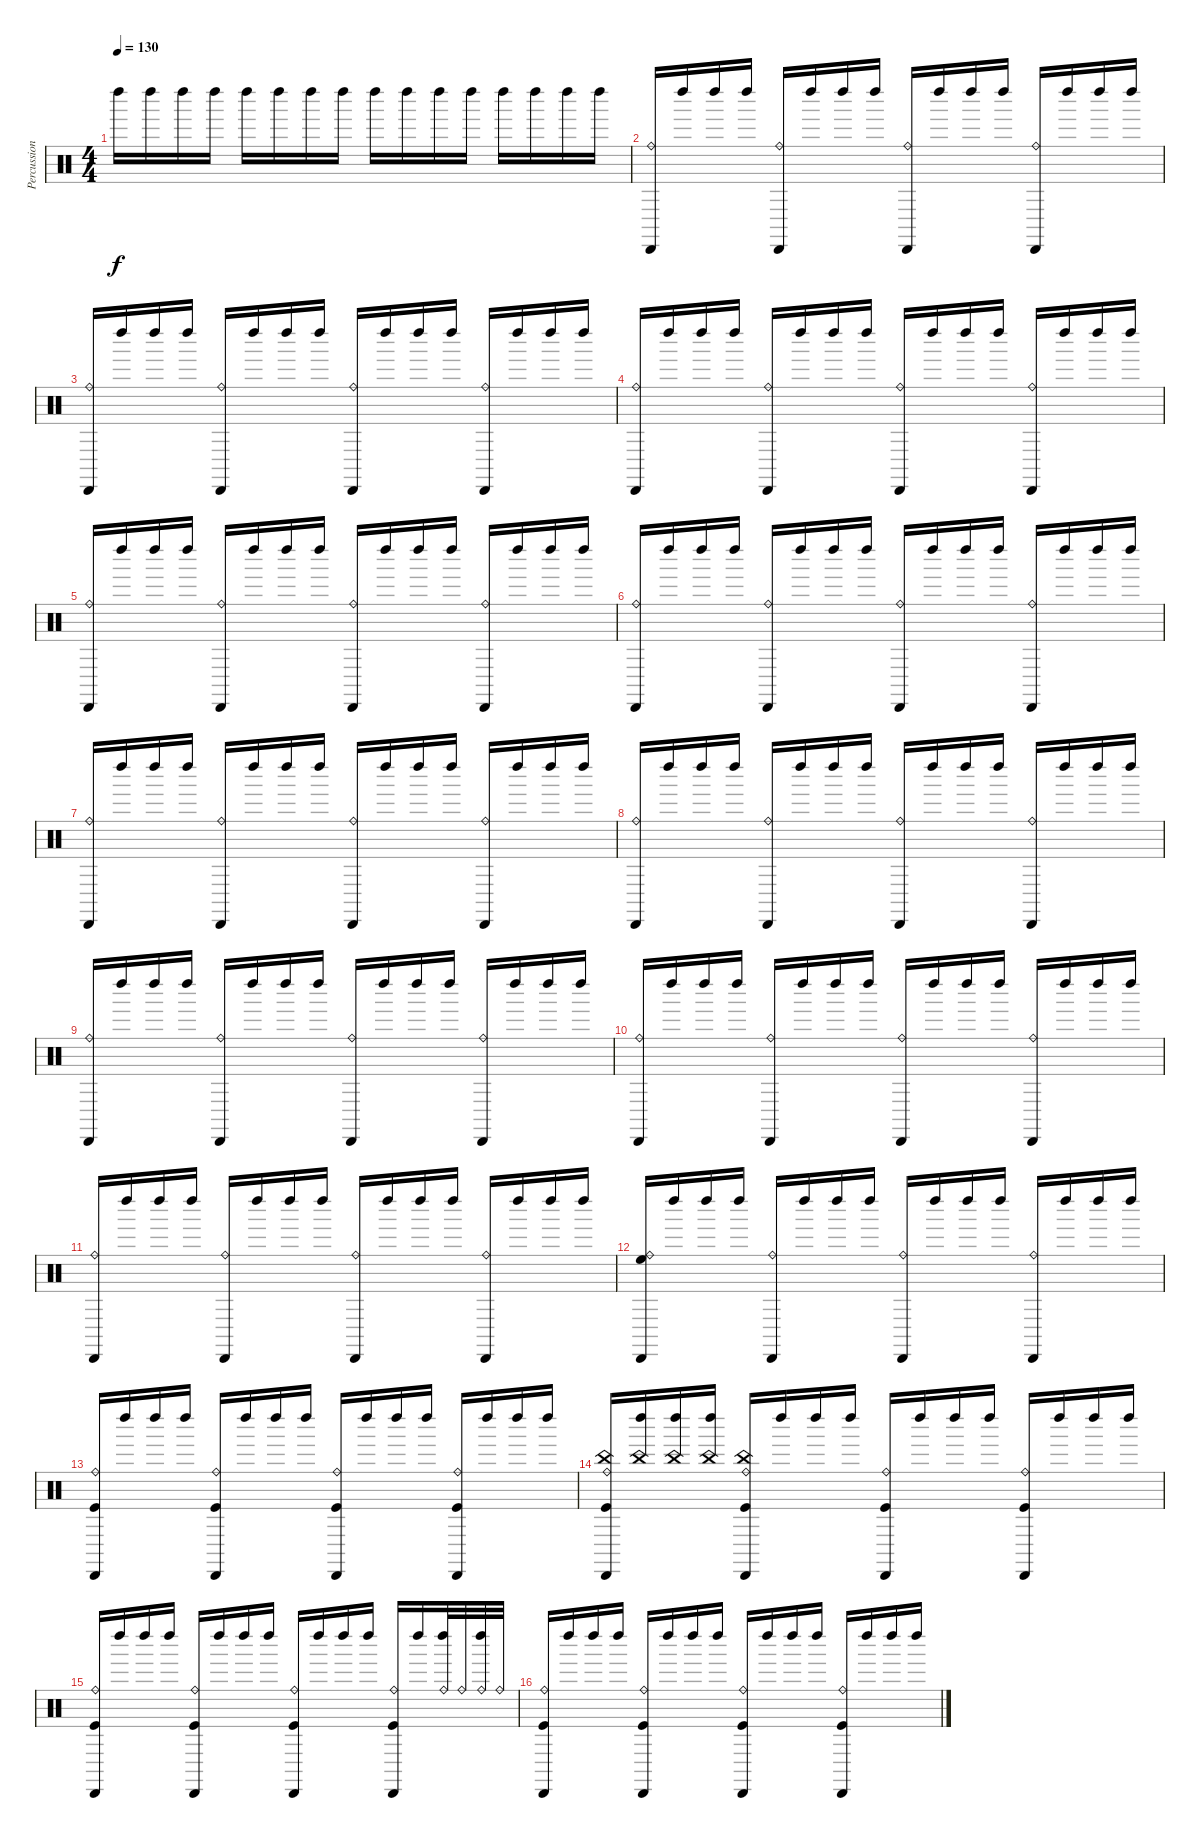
\track ("Percussion" "Percussion") {instrument percussion}
\staff {score}
\articulation defaults
\ts (4 4)
\tempo 130
\clef neutral
\ks c "Left Maraca (hit)".16{dy f} "Left Maraca (hit)".16 "Left Maraca (hit)".16 "Left Maraca (hit)".16 "Left Maraca (hit)".16 "Left Maraca (hit)".16 "Left Maraca (hit)".16 "Left Maraca (hit)".16 "Left Maraca (hit)".16 "Left Maraca (hit)".16 "Left Maraca (hit)".16 "Left Maraca (hit)".16 "Left Maraca (hit)".16 "Left Maraca (hit)".16 "Left Maraca (hit)".16 "Left Maraca (hit)".16
|
("Cabasa (hit)" "Ride (bell)").16 "Left Maraca (hit)".16 "Left Maraca (hit)".16 "Left Maraca (hit)".16 ("Cabasa (hit)" "Ride (bell)").16 "Left Maraca (hit)".16 "Left Maraca (hit)".16 "Left Maraca (hit)".16 ("Cabasa (hit)" "Ride (bell)").16 "Left Maraca (hit)".16 "Left Maraca (hit)".16 "Left Maraca (hit)".16 ("Cabasa (hit)" "Ride (bell)").16 "Left Maraca (hit)".16 "Left Maraca (hit)".16 "Left Maraca (hit)".16 |
("Cabasa (hit)" "Ride (bell)").16 "Left Maraca (hit)".16 "Left Maraca (hit)".16 "Left Maraca (hit)".16 ("Cabasa (hit)" "Ride (bell)").16 "Left Maraca (hit)".16 "Left Maraca (hit)".16 "Left Maraca (hit)".16 ("Cabasa (hit)" "Ride (bell)").16 "Left Maraca (hit)".16 "Left Maraca (hit)".16 "Left Maraca (hit)".16 ("Cabasa (hit)" "Ride (bell)").16 "Left Maraca (hit)".16 "Left Maraca (hit)".16 "Left Maraca (hit)".16 |
("Cabasa (hit)" "Ride (bell)").16 "Left Maraca (hit)".16 "Left Maraca (hit)".16 "Left Maraca (hit)".16 ("Cabasa (hit)" "Ride (bell)").16 "Left Maraca (hit)".16 "Left Maraca (hit)".16 "Left Maraca (hit)".16 ("Cabasa (hit)" "Ride (bell)").16 "Left Maraca (hit)".16 "Left Maraca (hit)".16 "Left Maraca (hit)".16 ("Cabasa (hit)" "Ride (bell)").16 "Left Maraca (hit)".16 "Left Maraca (hit)".16 "Left Maraca (hit)".16 |
("Cabasa (hit)" "Ride (bell)").16 "Left Maraca (hit)".16 "Left Maraca (hit)".16 "Left Maraca (hit)".16 ("Cabasa (hit)" "Ride (bell)").16 "Left Maraca (hit)".16 "Left Maraca (hit)".16 "Left Maraca (hit)".16 ("Cabasa (hit)" "Ride (bell)").16 "Left Maraca (hit)".16 "Left Maraca (hit)".16 "Left Maraca (hit)".16 ("Cabasa (hit)" "Ride (bell)").16 "Left Maraca (hit)".16 "Left Maraca (hit)".16 "Left Maraca (hit)".16 |
("Cabasa (hit)" "Ride (bell)").16 "Left Maraca (hit)".16 "Left Maraca (hit)".16 "Left Maraca (hit)".16 ("Cabasa (hit)" "Ride (bell)").16 "Left Maraca (hit)".16 "Left Maraca (hit)".16 "Left Maraca (hit)".16 ("Cabasa (hit)" "Ride (bell)").16 "Left Maraca (hit)".16 "Left Maraca (hit)".16 "Left Maraca (hit)".16 ("Cabasa (hit)" "Ride (bell)").16 "Left Maraca (hit)".16 "Left Maraca (hit)".16 "Left Maraca (hit)".16 |
("Cabasa (hit)" "Ride (bell)").16 "Left Maraca (hit)".16 "Left Maraca (hit)".16 "Left Maraca (hit)".16 ("Cabasa (hit)" "Ride (bell)").16 "Left Maraca (hit)".16 "Left Maraca (hit)".16 "Left Maraca (hit)".16 ("Cabasa (hit)" "Ride (bell)").16 "Left Maraca (hit)".16 "Left Maraca (hit)".16 "Left Maraca (hit)".16 ("Cabasa (hit)" "Ride (bell)").16 "Left Maraca (hit)".16 "Left Maraca (hit)".16 "Left Maraca (hit)".16 |
("Cabasa (hit)" "Ride (bell)").16 "Left Maraca (hit)".16 "Left Maraca (hit)".16 "Left Maraca (hit)".16 ("Cabasa (hit)" "Ride (bell)").16 "Left Maraca (hit)".16 "Left Maraca (hit)".16 "Left Maraca (hit)".16 ("Cabasa (hit)" "Ride (bell)").16 "Left Maraca (hit)".16 "Left Maraca (hit)".16 "Left Maraca (hit)".16 ("Cabasa (hit)" "Ride (bell)").16 "Left Maraca (hit)".16 "Left Maraca (hit)".16 "Left Maraca (hit)".16 |
("Cabasa (hit)" "Ride (bell)").16 "Left Maraca (hit)".16 "Left Maraca (hit)".16 "Left Maraca (hit)".16 ("Cabasa (hit)" "Ride (bell)").16 "Left Maraca (hit)".16 "Left Maraca (hit)".16 "Left Maraca (hit)".16 ("Cabasa (hit)" "Ride (bell)").16 "Left Maraca (hit)".16 "Left Maraca (hit)".16 "Left Maraca (hit)".16 ("Cabasa (hit)" "Ride (bell)").16 "Left Maraca (hit)".16 "Left Maraca (hit)".16 "Left Maraca (hit)".16 |
("Cabasa (hit)" "Ride (bell)").16 "Left Maraca (hit)".16 "Left Maraca (hit)".16 "Left Maraca (hit)".16 ("Cabasa (hit)" "Ride (bell)").16 "Left Maraca (hit)".16 "Left Maraca (hit)".16 "Left Maraca (hit)".16 ("Cabasa (hit)" "Ride (bell)").16 "Left Maraca (hit)".16 "Left Maraca (hit)".16 "Left Maraca (hit)".16 ("Cabasa (hit)" "Ride (bell)").16 "Left Maraca (hit)".16 "Left Maraca (hit)".16 "Left Maraca (hit)".16 |
("Cabasa (hit)" "Ride (bell)").16 "Left Maraca (hit)".16 "Left Maraca (hit)".16 "Left Maraca (hit)".16 ("Cabasa (hit)" "Ride (bell)").16 "Left Maraca (hit)".16 "Left Maraca (hit)".16 "Left Maraca (hit)".16 ("Cabasa (hit)" "Ride (bell)").16 "Left Maraca (hit)".16 "Left Maraca (hit)".16 "Left Maraca (hit)".16 ("Cabasa (hit)" "Ride (bell)").16 "Left Maraca (hit)".16 "Left Maraca (hit)".16 "Left Maraca (hit)".16 |
("Cabasa (hit)" "Ride (bell)" "High Floor Tom (hit)").16 "Left Maraca (hit)".16 "Left Maraca (hit)".16 "Left Maraca (hit)".16 ("Cabasa (hit)" "Ride (bell)").16 "Left Maraca (hit)".16 "Left Maraca (hit)".16 "Left Maraca (hit)".16 ("Cabasa (hit)" "Ride (bell)").16 "Left Maraca (hit)".16 "Left Maraca (hit)".16 "Left Maraca (hit)".16 ("Cabasa (hit)" "Ride (bell)").16 "Left Maraca (hit)".16 "Left Maraca (hit)".16 "Left Maraca (hit)".16 |
("Cabasa (hit)" "Ride (bell)" "Kick (hit)").16 "Left Maraca (hit)".16 "Left Maraca (hit)".16 "Left Maraca (hit)".16 ("Cabasa (hit)" "Ride (bell)" "Kick (hit)").16 "Left Maraca (hit)".16 "Left Maraca (hit)".16 "Left Maraca (hit)".16 ("Cabasa (hit)" "Ride (bell)" "Kick (hit)").16 "Left Maraca (hit)".16 "Left Maraca (hit)".16 "Left Maraca (hit)".16 ("Cabasa (hit)" "Ride (bell)" "Kick (hit)").16 "Left Maraca (hit)".16 "Left Maraca (hit)".16 "Left Maraca (hit)".16 |
("China (hit)" "Cabasa (hit)" "Ride (bell)" "Kick (hit)").16 ("China (hit)" "Left Maraca (hit)").16 ("China (hit)" "Left Maraca (hit)").16 ("China (hit)" "Left Maraca (hit)").16 ("China (hit)" "Cabasa (hit)" "Ride (bell)" "Kick (hit)").16 "Left Maraca (hit)".16 "Left Maraca (hit)".16 "Left Maraca (hit)".16 ("Cabasa (hit)" "Ride (bell)" "Kick (hit)").16 "Left Maraca (hit)".16 "Left Maraca (hit)".16 "Left Maraca (hit)".16 ("Cabasa (hit)" "Ride (bell)" "Kick (hit)").16 "Left Maraca (hit)".16 "Left Maraca (hit)".16 "Left Maraca (hit)".16 |
("Cabasa (hit)" "Ride (bell)" "Kick (hit)").16 "Left Maraca (hit)".16 "Left Maraca (hit)".16 "Left Maraca (hit)".16 ("Cabasa (hit)" "Ride (bell)" "Kick (hit)").16 "Left Maraca (hit)".16 "Left Maraca (hit)".16 "Left Maraca (hit)".16 ("Cabasa (hit)" "Ride (bell)" "Kick (hit)").16 "Left Maraca (hit)".16 "Left Maraca (hit)".16 "Left Maraca (hit)".16 ("Cabasa (hit)" "Ride (bell)" "Kick (hit)").16 "Left Maraca (hit)".16 ("Left Maraca (hit)" "Ride (bell)").32 "Ride (bell)".32 ("Left Maraca (hit)" "Ride (bell)").32 "Ride (bell)".32 |
("Cabasa (hit)" "Ride (bell)" "Kick (hit)").16 "Left Maraca (hit)".16 "Left Maraca (hit)".16 "Left Maraca (hit)".16 ("Cabasa (hit)" "Ride (bell)" "Kick (hit)").16 "Left Maraca (hit)".16 "Left Maraca (hit)".16 "Left Maraca (hit)".16 ("Cabasa (hit)" "Ride (bell)" "Kick (hit)").16 "Left Maraca (hit)".16 "Left Maraca (hit)".16 "Left Maraca (hit)".16 ("Cabasa (hit)" "Ride (bell)" "Kick (hit)").16 "Left Maraca (hit)".16 "Left Maraca (hit)".16 "Left Maraca (hit)".16
